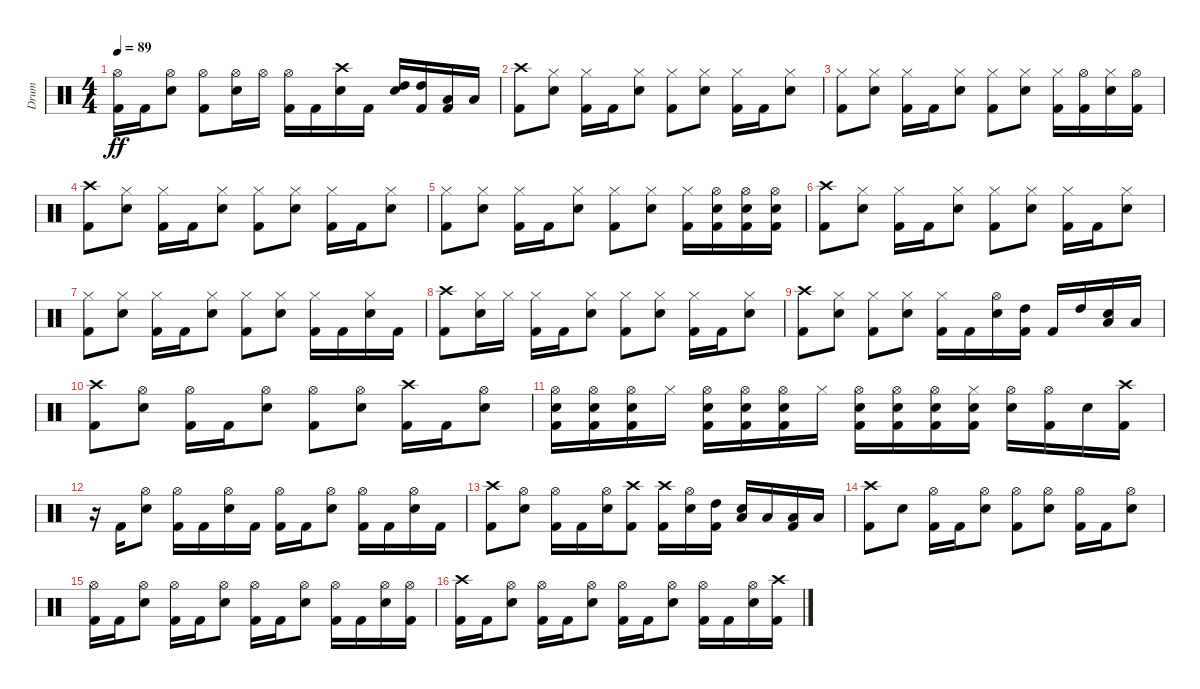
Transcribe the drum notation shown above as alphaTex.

\track ("Drum" "Drum") {instrument percussion}
\staff {score}
\articulation defaults
\ts (4 4)
\tempo 89
\clef neutral
\ks c
("Kick (hit) 2" "Hi-Hat (open)").16{dy ff} "Kick (hit) 2".16 ("Electric Snare (hit)" "Hi-Hat (open)").8 ("Kick (hit) 2" "Hi-Hat (open)").8 ("Electric Snare (hit)" "Hi-Hat (open)").16 "Hi-Hat (open)".16 ("Hi-Hat (open)" "Kick (hit) 2").16 "Kick (hit) 2".16 ("Electric Snare (hit)" "Crash high (hit)").16 "Kick (hit) 2".16 ("High Tom (hit)" "Electric Snare (hit)").16 ("High Tom (hit)" "Kick (hit) 2").16 ("Kick (hit) 2" "Low Tom (hit)").16 "Low Floor Tom (hit)".16 |
("Crash high (hit)" "Kick (hit) 2").8 ("Electric Snare (hit)" "Hi-Hat (closed)").8 ("Kick (hit) 2" "Hi-Hat (closed)").16 "Kick (hit) 2".16 ("Hi-Hat (closed)" "Electric Snare (hit)").8 ("Kick (hit) 2" "Hi-Hat (closed)").8 ("Electric Snare (hit)" "Hi-Hat (closed)").8 ("Kick (hit) 2" "Hi-Hat (closed)").16 "Kick (hit) 2".16 ("Electric Snare (hit)" "Hi-Hat (closed)").8 |
("Kick (hit) 2" "Hi-Hat (closed)").8 ("Electric Snare (hit)" "Hi-Hat (closed)").8 ("Kick (hit) 2" "Hi-Hat (closed)").16 "Kick (hit) 2".16 ("Electric Snare (hit)" "Hi-Hat (closed)").8 ("Kick (hit) 2" "Hi-Hat (closed)").8 ("Electric Snare (hit)" "Hi-Hat (closed)").8 ("Kick (hit) 2" "Hi-Hat (closed)").16 ("Kick (hit) 2" "Hi-Hat (open)").16 ("Electric Snare (hit)" "Hi-Hat (closed)").16 ("Kick (hit) 2" "Hi-Hat (open)").16 |
("Crash high (hit)" "Kick (hit) 2").8 ("Electric Snare (hit)" "Hi-Hat (closed)").8 ("Kick (hit) 2" "Hi-Hat (closed)").16 "Kick (hit) 2".16 ("Electric Snare (hit)" "Hi-Hat (closed)").8 ("Kick (hit) 2" "Hi-Hat (closed)").8 ("Electric Snare (hit)" "Hi-Hat (closed)").8 ("Kick (hit) 2" "Hi-Hat (closed)").16 "Kick (hit) 2".16 ("Electric Snare (hit)" "Hi-Hat (closed)").8 |
("Kick (hit) 2" "Hi-Hat (closed)").8 ("Electric Snare (hit)" "Hi-Hat (closed)").8 ("Kick (hit) 2" "Hi-Hat (closed)").16 "Kick (hit) 2".16 ("Electric Snare (hit)" "Hi-Hat (closed)").8 ("Kick (hit) 2" "Hi-Hat (closed)").8 ("Electric Snare (hit)" "Hi-Hat (closed)").8 ("Kick (hit) 2" "Hi-Hat (closed)").16 ("Hi-Hat (open)" "Kick (hit) 2" "Electric Snare (hit)").16 ("Hi-Hat (open)" "Kick (hit) 2" "Electric Snare (hit)").16 ("Kick (hit) 2" "Electric Snare (hit)" "Hi-Hat (open)").16 |
("Crash high (hit)" "Kick (hit) 2").8 ("Electric Snare (hit)" "Hi-Hat (closed)").8 ("Kick (hit) 2" "Hi-Hat (closed)").16 "Kick (hit) 2".16 ("Hi-Hat (closed)" "Electric Snare (hit)").8 ("Kick (hit) 2" "Hi-Hat (closed)").8 ("Electric Snare (hit)" "Hi-Hat (closed)").8 ("Kick (hit) 2" "Hi-Hat (closed)").16 "Kick (hit) 2".16 ("Electric Snare (hit)" "Hi-Hat (closed)").8 |
("Kick (hit) 2" "Hi-Hat (closed)").8 ("Electric Snare (hit)" "Hi-Hat (closed)").8 ("Kick (hit) 2" "Hi-Hat (closed)").16 "Kick (hit) 2".16 ("Hi-Hat (closed)" "Electric Snare (hit)").8 ("Kick (hit) 2" "Hi-Hat (closed)").8 ("Electric Snare (hit)" "Hi-Hat (closed)").8 ("Kick (hit) 2" "Hi-Hat (closed)").16 "Kick (hit) 2".16 ("Electric Snare (hit)" "Hi-Hat (closed)").16 "Kick (hit) 2".16 |
("Kick (hit) 2" "Crash high (hit)").8 ("Electric Snare (hit)" "Hi-Hat (closed)").16 "Hi-Hat (closed)".16 ("Kick (hit) 2" "Hi-Hat (closed)").16 "Kick (hit) 2".16 ("Electric Snare (hit)" "Hi-Hat (closed)").8 ("Kick (hit) 2" "Hi-Hat (closed)").8 ("Electric Snare (hit)" "Hi-Hat (closed)").8 ("Kick (hit) 2" "Hi-Hat (closed)").16 "Kick (hit) 2".16 ("Electric Snare (hit)" "Hi-Hat (closed)").8 |
("Crash high (hit)" "Kick (hit) 2").8 ("Electric Snare (hit)" "Hi-Hat (closed)").8 ("Kick (hit) 2" "Hi-Hat (closed)").8 ("Electric Snare (hit)" "Hi-Hat (closed)").8 ("Kick (hit) 2" "Hi-Hat (closed)").16 "Kick (hit) 2".16 ("Hi-Hat (open)" "Electric Snare (hit)").16 ("High Tom (hit)" "Kick (hit) 2").16 "Kick (hit) 2".16 "High Tom (hit)".16 ("Electric Snare (hit)" "Low Tom (hit)").16 "Low Floor Tom (hit)".16 |
("Crash high (hit)" "Kick (hit) 2").8 ("Electric Snare (hit)" "Hi-Hat (open)").8 ("Kick (hit) 2" "Hi-Hat (open)").16 "Kick (hit) 2".16 ("Electric Snare (hit)" "Hi-Hat (open)").8 ("Kick (hit) 2" "Hi-Hat (open)").8 ("Electric Snare (hit)" "Hi-Hat (open)").8 ("Kick (hit) 2" "Crash high (hit)").16 "Kick (hit) 2".16 ("Hi-Hat (open)" "Electric Snare (hit)").8 |
("Electric Snare (hit)" "Kick (hit) 2" "Hi-Hat (open)").16 ("Hi-Hat (open)" "Kick (hit) 2" "Electric Snare (hit)").16 ("Electric Snare (hit)" "Kick (hit) 2" "Hi-Hat (open)").16 "Hi-Hat (closed)".16 ("Electric Snare (hit)" "Kick (hit) 2" "Hi-Hat (open)").16 ("Hi-Hat (open)" "Kick (hit) 2" "Electric Snare (hit)").16 ("Kick (hit) 2" "Hi-Hat (open)" "Electric Snare (hit)").16 "Hi-Hat (closed)".16 ("Kick (hit) 2" "Electric Snare (hit)" "Hi-Hat (open)").16 ("Electric Snare (hit)" "Kick (hit) 2" "Hi-Hat (open)").16 ("Electric Snare (hit)" "Kick (hit) 2" "Hi-Hat (open)").16 ("Electric Snare (hit)" "Kick (hit) 2" "Hi-Hat (closed)").16 ("Electric Snare (hit)" "Hi-Hat (open)").16 ("Kick (hit) 2" "Hi-Hat (open)").16 "Electric Snare (hit)".16 ("Kick (hit) 2" "Crash high (hit)").16 |
r.16 "Kick (hit) 2".16 ("Electric Snare (hit)" "Hi-Hat (open)").8 ("Kick (hit) 2" "Hi-Hat (open)").16 "Kick (hit) 2".16 ("Electric Snare (hit)" "Hi-Hat (open)").16 "Kick (hit) 2".16 ("Kick (hit) 2" "Hi-Hat (open)").16 "Kick (hit) 2".16 ("Electric Snare (hit)" "Hi-Hat (open)").8 ("Kick (hit) 2" "Hi-Hat (open)").16 "Kick (hit) 2".16 ("Electric Snare (hit)" "Hi-Hat (open)").16 "Kick (hit) 2".16 |
("Kick (hit) 2" "Crash high (hit)").8 ("Electric Snare (hit)" "Hi-Hat (open)").8 ("Kick (hit) 2" "Hi-Hat (open)").16 "Kick (hit) 2".16 ("Electric Snare (hit)" "Hi-Hat (open)").16 ("Kick (hit) 2" "Crash high (hit)").8 ("Kick (hit) 2" "Crash high (hit)").16 ("Electric Snare (hit)" "Hi-Hat (open)").16 ("Kick (hit) 2" "High Tom (hit)").16 ("Electric Snare (hit)" "Low Tom (hit)").16 "Low Tom (hit)".16 ("Kick (hit) 2" "Low Floor Tom (hit)").16 "Low Floor Tom (hit)".16 |
("Kick (hit) 2" "Crash high (hit)").8 "Electric Snare (hit)".8 ("Kick (hit) 2" "Hi-Hat (open)").16 "Kick (hit) 2".16 ("Electric Snare (hit)" "Hi-Hat (open)").8 ("Kick (hit) 2" "Hi-Hat (open)").8 ("Electric Snare (hit)" "Hi-Hat (open)").8 ("Kick (hit) 2" "Hi-Hat (open)").16 "Kick (hit) 2".16 ("Electric Snare (hit)" "Hi-Hat (open)").8 |
("Hi-Hat (open)" "Kick (hit) 2").16 "Kick (hit) 2".16 ("Electric Snare (hit)" "Hi-Hat (open)").8 ("Kick (hit) 2" "Hi-Hat (open)").16 "Kick (hit) 2".16 ("Electric Snare (hit)" "Hi-Hat (open)").8 ("Kick (hit) 2" "Hi-Hat (open)").16 "Kick (hit) 2".16 ("Electric Snare (hit)" "Hi-Hat (open)").8 ("Kick (hit) 2" "Hi-Hat (open)").16 "Kick (hit) 2".16 ("Electric Snare (hit)" "Hi-Hat (open)").16 ("Kick (hit) 2" "Hi-Hat (open)").16 |
("Kick (hit) 2" "Crash high (hit)").16 "Kick (hit) 2".16 ("Electric Snare (hit)" "Hi-Hat (open)").8 ("Kick (hit) 2" "Hi-Hat (open)").16 "Kick (hit) 2".16 ("Electric Snare (hit)" "Hi-Hat (open)").8 ("Kick (hit) 2" "Hi-Hat (open)").16 "Kick (hit) 2".16 ("Electric Snare (hit)" "Hi-Hat (open)").8 ("Kick (hit) 2" "Hi-Hat (open)").16 "Kick (hit) 2".16 ("Electric Snare (hit)" "Hi-Hat (open)").16 ("Kick (hit) 2" "Crash high (hit)").16
